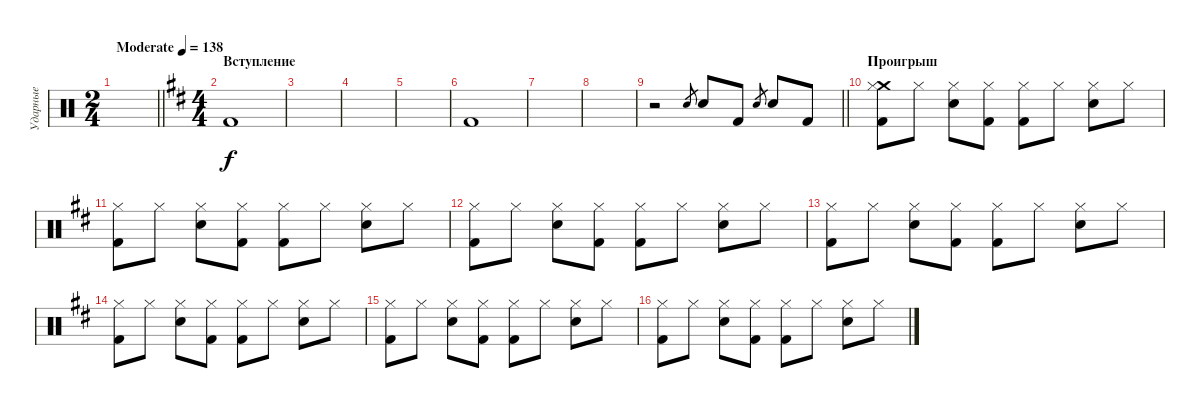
\track ("Ударные" "Ударные") {instrument percussion}
\staff {score}
\articulation defaults
\ts (2 4)
\tempo (138 "Moderate")
\clef neutral
\barLineRight lightlight
\ks c
|
\ts (4 4)
\section ("" "Вступление")
\ks bminor "Kick (hit) 2".1
|
|
|
|
"Kick (hit) 2".1 |
|
|
\barLineRight lightlight
r.2 "Electric Snare (hit)".8{gr} "Electric Snare (hit)".8 "Kick (hit) 2".8 "Electric Snare (hit)".8{gr} "Electric Snare (hit)".8 "Kick (hit) 2".8 |
\section ("" "Проигрыш")
("Crash medium (hit)" "Kick (hit) 2" "Hi-Hat (closed)").8 "Hi-Hat (closed)".8 ("Electric Snare (hit)" "Hi-Hat (closed)").8 ("Kick (hit) 2" "Hi-Hat (closed)").8 ("Kick (hit) 2" "Hi-Hat (closed)").8 "Hi-Hat (closed)".8 ("Electric Snare (hit)" "Hi-Hat (closed)").8 "Hi-Hat (closed)".8 |
("Kick (hit) 2" "Hi-Hat (closed)").8 "Hi-Hat (closed)".8 ("Electric Snare (hit)" "Hi-Hat (closed)").8 ("Kick (hit) 2" "Hi-Hat (closed)").8 ("Kick (hit) 2" "Hi-Hat (closed)").8 "Hi-Hat (closed)".8 ("Electric Snare (hit)" "Hi-Hat (closed)").8 "Hi-Hat (closed)".8 |
("Kick (hit) 2" "Hi-Hat (closed)").8 "Hi-Hat (closed)".8 ("Electric Snare (hit)" "Hi-Hat (closed)").8 ("Kick (hit) 2" "Hi-Hat (closed)").8 ("Kick (hit) 2" "Hi-Hat (closed)").8 "Hi-Hat (closed)".8 ("Electric Snare (hit)" "Hi-Hat (closed)").8 "Hi-Hat (closed)".8 |
("Kick (hit) 2" "Hi-Hat (closed)").8 "Hi-Hat (closed)".8 ("Electric Snare (hit)" "Hi-Hat (closed)").8 ("Kick (hit) 2" "Hi-Hat (closed)").8 ("Kick (hit) 2" "Hi-Hat (closed)").8 "Hi-Hat (closed)".8 ("Electric Snare (hit)" "Hi-Hat (closed)").8 "Hi-Hat (closed)".8 |
("Kick (hit) 2" "Hi-Hat (closed)").8 "Hi-Hat (closed)".8 ("Electric Snare (hit)" "Hi-Hat (closed)").8 ("Kick (hit) 2" "Hi-Hat (closed)").8 ("Kick (hit) 2" "Hi-Hat (closed)").8 "Hi-Hat (closed)".8 ("Electric Snare (hit)" "Hi-Hat (closed)").8 "Hi-Hat (closed)".8 |
("Kick (hit) 2" "Hi-Hat (closed)").8 "Hi-Hat (closed)".8 ("Electric Snare (hit)" "Hi-Hat (closed)").8 ("Kick (hit) 2" "Hi-Hat (closed)").8 ("Kick (hit) 2" "Hi-Hat (closed)").8 "Hi-Hat (closed)".8 ("Electric Snare (hit)" "Hi-Hat (closed)").8 "Hi-Hat (closed)".8 |
("Kick (hit) 2" "Hi-Hat (closed)").8 "Hi-Hat (closed)".8 ("Electric Snare (hit)" "Hi-Hat (closed)").8 ("Kick (hit) 2" "Hi-Hat (closed)").8 ("Kick (hit) 2" "Hi-Hat (closed)").8 "Hi-Hat (closed)".8 ("Electric Snare (hit)" "Hi-Hat (closed)").8 "Hi-Hat (closed)".8
